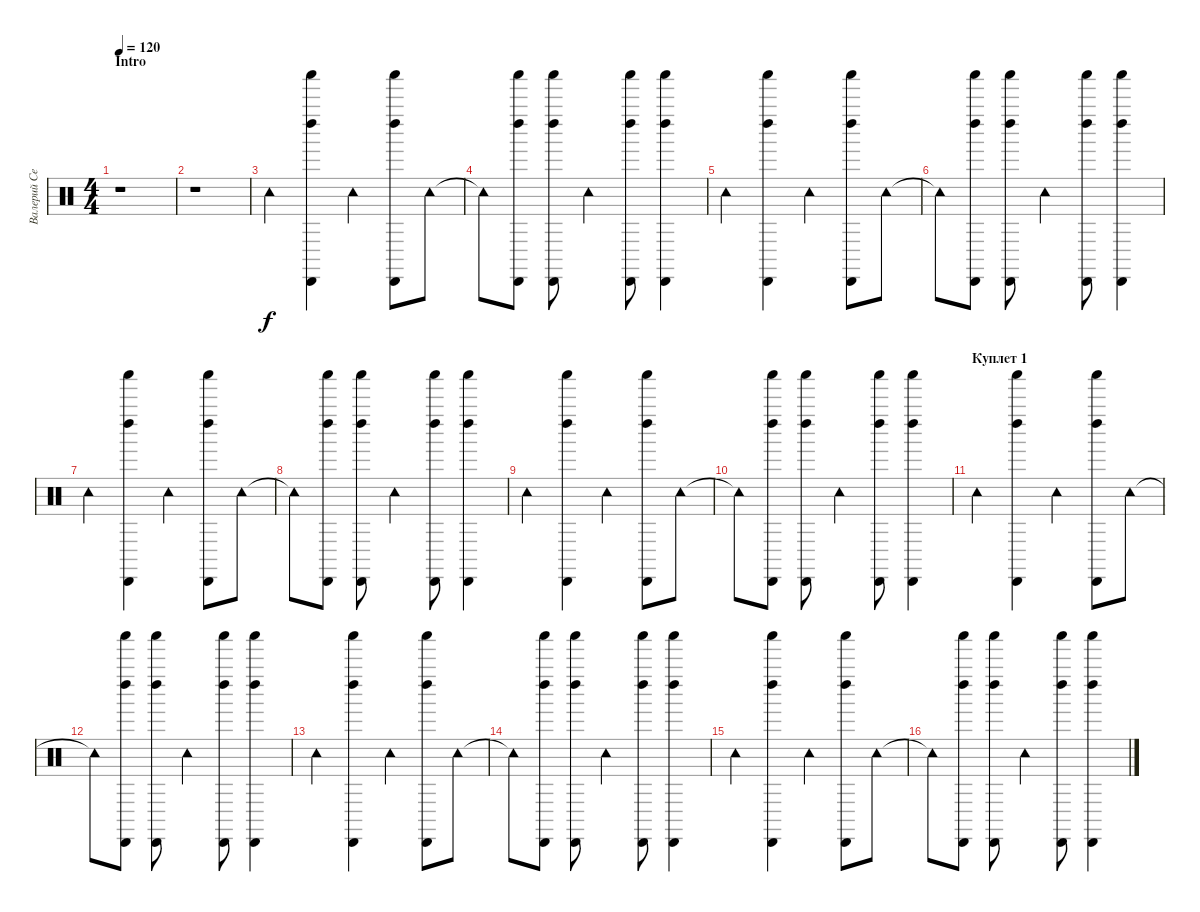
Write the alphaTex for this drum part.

\track ("Валерий Северин" "Валерий Се") {instrument percussion}
\staff {score}
\articulation defaults
\ts (4 4)
\section ("" "Intro")
\tempo 120
\clef neutral
\ks c
r.1{dy f} |
r.1 |
"Tambourine (hit)".4 ("Left Maraca (hit)" "Cabasa (hit)" "Shaker (hit)").4 "Tambourine (hit)".4 ("Left Maraca (hit)" "Cabasa (hit)" "Shaker (hit)").8 "Tambourine (hit)".8 |
"Tambourine (hit)"{t}.8 ("Left Maraca (hit)" "Cabasa (hit)" "Shaker (hit)").8 ("Left Maraca (hit)" "Cabasa (hit)" "Shaker (hit)").8 "Tambourine (hit)".4 ("Left Maraca (hit)" "Cabasa (hit)" "Shaker (hit)").8 ("Left Maraca (hit)" "Cabasa (hit)" "Shaker (hit)").4 |
"Tambourine (hit)".4 ("Left Maraca (hit)" "Cabasa (hit)" "Shaker (hit)").4 "Tambourine (hit)".4 ("Left Maraca (hit)" "Cabasa (hit)" "Shaker (hit)").8 "Tambourine (hit)".8 |
"Tambourine (hit)"{t}.8 ("Left Maraca (hit)" "Cabasa (hit)" "Shaker (hit)").8 ("Left Maraca (hit)" "Cabasa (hit)" "Shaker (hit)").8 "Tambourine (hit)".4 ("Left Maraca (hit)" "Cabasa (hit)" "Shaker (hit)").8 ("Left Maraca (hit)" "Cabasa (hit)" "Shaker (hit)").4 |
"Tambourine (hit)".4 ("Left Maraca (hit)" "Cabasa (hit)" "Shaker (hit)").4 "Tambourine (hit)".4 ("Left Maraca (hit)" "Cabasa (hit)" "Shaker (hit)").8 "Tambourine (hit)".8 |
"Tambourine (hit)"{t}.8 ("Left Maraca (hit)" "Cabasa (hit)" "Shaker (hit)").8 ("Left Maraca (hit)" "Cabasa (hit)" "Shaker (hit)").8 "Tambourine (hit)".4 ("Left Maraca (hit)" "Cabasa (hit)" "Shaker (hit)").8 ("Left Maraca (hit)" "Cabasa (hit)" "Shaker (hit)").4 |
"Tambourine (hit)".4 ("Left Maraca (hit)" "Cabasa (hit)" "Shaker (hit)").4 "Tambourine (hit)".4 ("Left Maraca (hit)" "Cabasa (hit)" "Shaker (hit)").8 "Tambourine (hit)".8 |
"Tambourine (hit)"{t}.8 ("Left Maraca (hit)" "Cabasa (hit)" "Shaker (hit)").8 ("Left Maraca (hit)" "Cabasa (hit)" "Shaker (hit)").8 "Tambourine (hit)".4 ("Left Maraca (hit)" "Cabasa (hit)" "Shaker (hit)").8 ("Left Maraca (hit)" "Cabasa (hit)" "Shaker (hit)").4 |
\section ("" "Куплет 1")
"Tambourine (hit)".4 ("Left Maraca (hit)" "Cabasa (hit)" "Shaker (hit)").4 "Tambourine (hit)".4 ("Left Maraca (hit)" "Cabasa (hit)" "Shaker (hit)").8 "Tambourine (hit)".8 |
"Tambourine (hit)"{t}.8 ("Left Maraca (hit)" "Cabasa (hit)" "Shaker (hit)").8 ("Left Maraca (hit)" "Cabasa (hit)" "Shaker (hit)").8 "Tambourine (hit)".4 ("Left Maraca (hit)" "Cabasa (hit)" "Shaker (hit)").8 ("Left Maraca (hit)" "Cabasa (hit)" "Shaker (hit)").4 |
"Tambourine (hit)".4 ("Left Maraca (hit)" "Cabasa (hit)" "Shaker (hit)").4 "Tambourine (hit)".4 ("Left Maraca (hit)" "Cabasa (hit)" "Shaker (hit)").8 "Tambourine (hit)".8 |
"Tambourine (hit)"{t}.8 ("Left Maraca (hit)" "Cabasa (hit)" "Shaker (hit)").8 ("Left Maraca (hit)" "Cabasa (hit)" "Shaker (hit)").8 "Tambourine (hit)".4 ("Left Maraca (hit)" "Cabasa (hit)" "Shaker (hit)").8 ("Left Maraca (hit)" "Cabasa (hit)" "Shaker (hit)").4 |
"Tambourine (hit)".4 ("Left Maraca (hit)" "Cabasa (hit)" "Shaker (hit)").4 "Tambourine (hit)".4 ("Left Maraca (hit)" "Cabasa (hit)" "Shaker (hit)").8 "Tambourine (hit)".8 |
"Tambourine (hit)"{t}.8 ("Left Maraca (hit)" "Cabasa (hit)" "Shaker (hit)").8 ("Left Maraca (hit)" "Cabasa (hit)" "Shaker (hit)").8 "Tambourine (hit)".4 ("Left Maraca (hit)" "Cabasa (hit)" "Shaker (hit)").8 ("Left Maraca (hit)" "Cabasa (hit)" "Shaker (hit)").4
